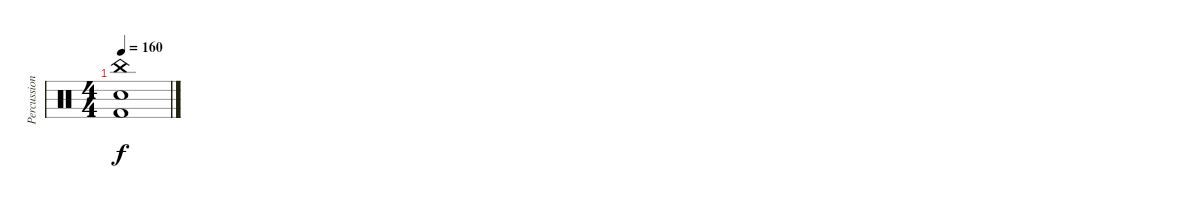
\track ("Percussion" "Percussion") {instrument percussion}
\staff {score}
\articulation defaults
\ts (4 4)
\tempo 160
\clef neutral
\ks c
("China (hit)" "Electric Snare (hit)" "Kick (hit) 2").1{dy f}
